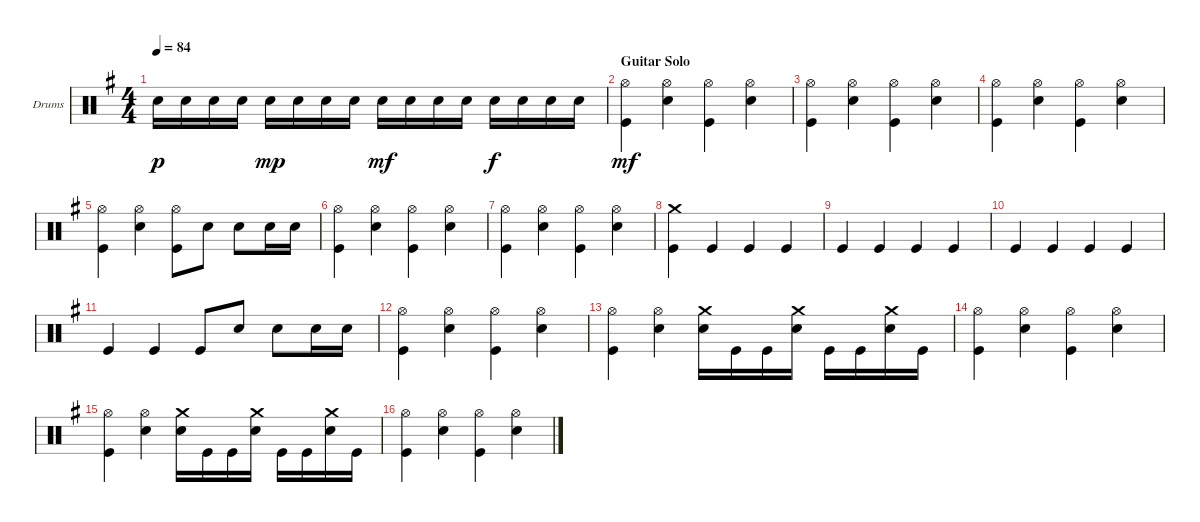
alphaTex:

\bracketExtendMode groupsimilarinstruments
\firstSystemTrackNameOrientation horizontal
\otherSystemsTrackNameOrientation horizontal
\track ("Drumkit" "Drums") {instrument percussion}
\staff {score}
\articulation defaults
\ts (4 4)
\tempo 84
\clef neutral
\scale
1.04288
\ks g "Snare (hit) 2".16{dy p} "Snare (hit) 2".16 "Snare (hit) 2".16 "Snare (hit) 2".16 "Snare (hit) 2".16{dy mp} "Snare (hit) 2".16 "Snare (hit) 2".16 "Snare (hit) 2".16 "Snare (hit) 2".16{dy mf} "Snare (hit) 2".16 "Snare (hit) 2".16 "Snare (hit) 2".16 "Snare (hit) 2".16{dy f} "Snare (hit) 2".16 "Snare (hit) 2".16 "Snare (hit) 2".16
|
\section ("" "Guitar Solo")
\scale
0.957125 ("Hi-Hat (open)" "Kick (hit)").4{dy mf} ("Hi-Hat (open)" "Snare (hit) 2").4 ("Hi-Hat (open)" "Kick (hit)").4 ("Hi-Hat (open)" "Snare (hit) 2").4 |
\scale
1.04288 ("Hi-Hat (open)" "Kick (hit)").4 ("Hi-Hat (open)" "Snare (hit) 2").4 ("Hi-Hat (open)" "Kick (hit)").4 ("Hi-Hat (open)" "Snare (hit) 2").4 |
\scale
0.957125 ("Hi-Hat (open)" "Kick (hit)").4 ("Hi-Hat (open)" "Snare (hit) 2").4 ("Hi-Hat (open)" "Kick (hit)").4 ("Hi-Hat (open)" "Snare (hit) 2").4 |
\scale
1.04288 ("Hi-Hat (open)" "Kick (hit)").4 ("Hi-Hat (open)" "Snare (hit) 2").4 ("Hi-Hat (open)" "Kick (hit)").8 "Snare (hit) 2".8 "Snare (hit) 2".8 "Snare (hit) 2".16 "Snare (hit) 2".16 |
\scale
0.957125 ("Hi-Hat (open)" "Kick (hit)").4 ("Hi-Hat (open)" "Snare (hit) 2").4 ("Hi-Hat (open)" "Kick (hit)").4 ("Hi-Hat (open)" "Snare (hit) 2").4 |
\scale
1.04288 ("Hi-Hat (open)" "Kick (hit)").4 ("Hi-Hat (open)" "Snare (hit) 2").4 ("Hi-Hat (open)" "Kick (hit)").4 ("Hi-Hat (open)" "Snare (hit) 2").4 |
\scale
0.957125 ("Crash medium (hit)" "Kick (hit)").4 "Kick (hit)".4 "Kick (hit)".4 "Kick (hit)".4 |
\scale
1.04288 "Kick (hit)".4 "Kick (hit)".4 "Kick (hit)".4 "Kick (hit)".4 |
\scale
0.957125 "Kick (hit)".4 "Kick (hit)".4 "Kick (hit)".4 "Kick (hit)".4 |
\scale
1.04288 "Kick (hit)".4 "Kick (hit)".4 "Kick (hit)".8 "Snare (hit) 2".8 "Snare (hit) 2".8 "Snare (hit) 2".16 "Snare (hit) 2".16 |
\scale
0.957125 ("Hi-Hat (open)" "Kick (hit)").4 ("Hi-Hat (open)" "Snare (hit) 2").4 ("Hi-Hat (open)" "Kick (hit)").4 ("Hi-Hat (open)" "Snare (hit) 2").4 |
\scale
1.04288 ("Hi-Hat (open)" "Kick (hit)").4 ("Hi-Hat (open)" "Snare (hit) 2").4 ("Crash medium (hit)" "Snare (hit) 2").16 "Kick (hit)".16 "Kick (hit)".16 ("Crash medium (hit)" "Snare (hit) 2").16 "Kick (hit)".16 "Kick (hit)".16 ("Crash medium (hit)" "Snare (hit) 2").16 "Kick (hit)".16 |
\scale
0.957125 ("Hi-Hat (open)" "Kick (hit)").4 ("Hi-Hat (open)" "Snare (hit) 2").4 ("Hi-Hat (open)" "Kick (hit)").4 ("Hi-Hat (open)" "Snare (hit) 2").4 |
\scale
1.04288 ("Hi-Hat (open)" "Kick (hit)").4 ("Hi-Hat (open)" "Snare (hit) 2").4 ("Crash medium (hit)" "Snare (hit) 2").16 "Kick (hit)".16 "Kick (hit)".16 ("Crash medium (hit)" "Snare (hit) 2").16 "Kick (hit)".16 "Kick (hit)".16 ("Crash medium (hit)" "Snare (hit) 2").16 "Kick (hit)".16 |
\scale
0.957125 ("Hi-Hat (open)" "Kick (hit)").4 ("Hi-Hat (open)" "Snare (hit) 2").4 ("Hi-Hat (open)" "Kick (hit)").4 ("Hi-Hat (open)" "Snare (hit) 2").4
